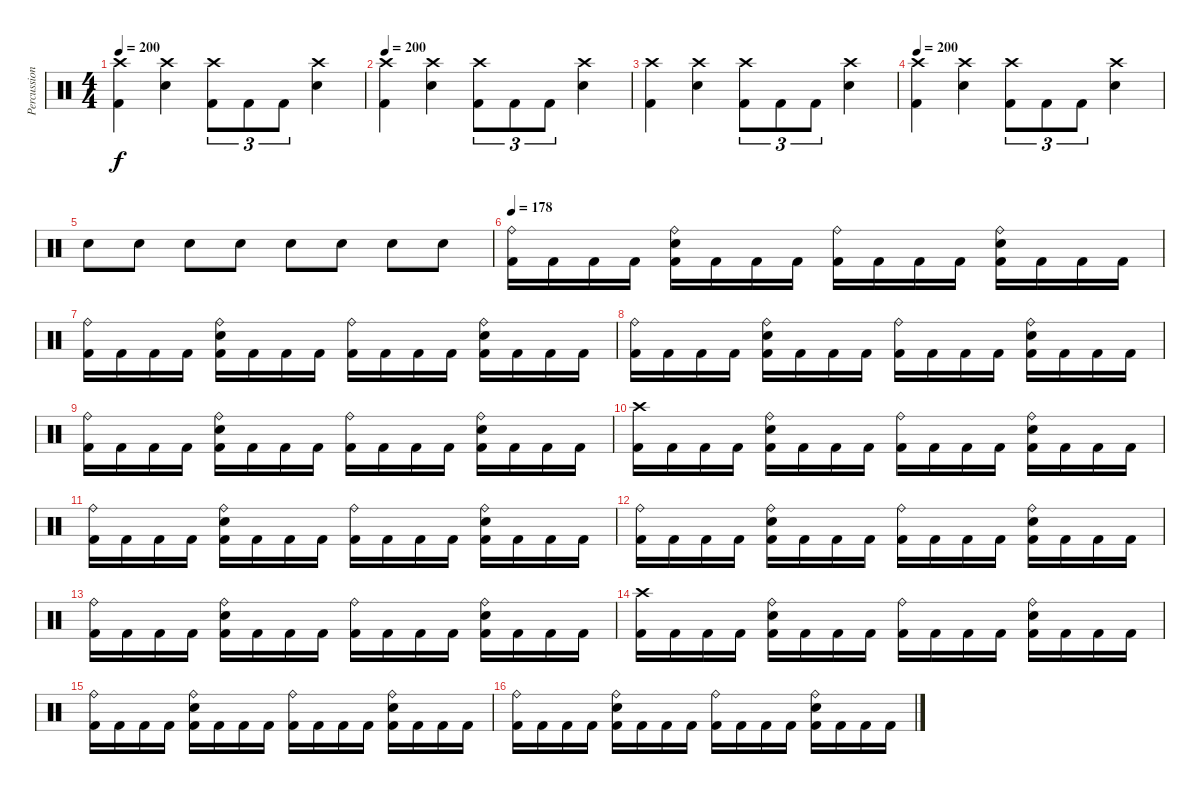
\track ("Percussion" "Percussion") {instrument percussion}
\staff {score}
\articulation defaults
\ts (4 4)
\tempo 200
\clef neutral
\ks c
("Crash high (hit)" "Kick (hit) 2").4{dy f} ("Crash high (hit)" "Electric Snare (hit)").4 ("Crash high (hit)" "Kick (hit) 2").8{tu (3 2)} "Kick (hit) 2".8{tu (3 2)} "Kick (hit) 2".8{tu (3 2)} ("Crash high (hit)" "Electric Snare (hit)").4 |
\tempo 200
("Crash high (hit)" "Kick (hit) 2").4 ("Crash high (hit)" "Electric Snare (hit)").4 ("Crash high (hit)" "Kick (hit) 2").8{tu (3 2)} "Kick (hit) 2".8{tu (3 2)} "Kick (hit) 2".8{tu (3 2)} ("Crash high (hit)" "Electric Snare (hit)").4 |
("Crash high (hit)" "Kick (hit) 2").4 ("Crash high (hit)" "Electric Snare (hit)").4 ("Crash high (hit)" "Kick (hit) 2").8{tu (3 2)} "Kick (hit) 2".8{tu (3 2)} "Kick (hit) 2".8{tu (3 2)} ("Crash high (hit)" "Electric Snare (hit)").4 |
\tempo 200
("Crash high (hit)" "Kick (hit) 2").4 ("Crash high (hit)" "Electric Snare (hit)").4 ("Crash high (hit)" "Kick (hit) 2").8{tu (3 2)} "Kick (hit) 2".8{tu (3 2)} "Kick (hit) 2".8{tu (3 2)} ("Crash high (hit)" "Electric Snare (hit)").4 |
"Electric Snare (hit)".8 "Electric Snare (hit)".8 "Electric Snare (hit)".8 "Electric Snare (hit)".8 "Electric Snare (hit)".8 "Electric Snare (hit)".8 "Electric Snare (hit)".8 "Electric Snare (hit)".8 |
\tempo 178
("Ride (bell)" "Kick (hit) 2").16 "Kick (hit) 2".16 "Kick (hit) 2".16 "Kick (hit) 2".16 ("Ride (bell)" "Electric Snare (hit)" "Kick (hit) 2").16 "Kick (hit) 2".16 "Kick (hit) 2".16 "Kick (hit) 2".16 ("Ride (bell)" "Kick (hit) 2").16 "Kick (hit) 2".16 "Kick (hit) 2".16 "Kick (hit) 2".16 ("Ride (bell)" "Electric Snare (hit)" "Kick (hit) 2").16 "Kick (hit) 2".16 "Kick (hit) 2".16 "Kick (hit) 2".16 |
("Ride (bell)" "Kick (hit) 2").16 "Kick (hit) 2".16 "Kick (hit) 2".16 "Kick (hit) 2".16 ("Ride (bell)" "Electric Snare (hit)" "Kick (hit) 2").16 "Kick (hit) 2".16 "Kick (hit) 2".16 "Kick (hit) 2".16 ("Ride (bell)" "Kick (hit) 2").16 "Kick (hit) 2".16 "Kick (hit) 2".16 "Kick (hit) 2".16 ("Ride (bell)" "Electric Snare (hit)" "Kick (hit) 2").16 "Kick (hit) 2".16 "Kick (hit) 2".16 "Kick (hit) 2".16 |
("Ride (bell)" "Kick (hit) 2").16 "Kick (hit) 2".16 "Kick (hit) 2".16 "Kick (hit) 2".16 ("Ride (bell)" "Electric Snare (hit)" "Kick (hit) 2").16 "Kick (hit) 2".16 "Kick (hit) 2".16 "Kick (hit) 2".16 ("Ride (bell)" "Kick (hit) 2").16 "Kick (hit) 2".16 "Kick (hit) 2".16 "Kick (hit) 2".16 ("Ride (bell)" "Electric Snare (hit)" "Kick (hit) 2").16 "Kick (hit) 2".16 "Kick (hit) 2".16 "Kick (hit) 2".16 |
("Ride (bell)" "Kick (hit) 2").16 "Kick (hit) 2".16 "Kick (hit) 2".16 "Kick (hit) 2".16 ("Ride (bell)" "Electric Snare (hit)" "Kick (hit) 2").16 "Kick (hit) 2".16 "Kick (hit) 2".16 "Kick (hit) 2".16 ("Ride (bell)" "Kick (hit) 2").16 "Kick (hit) 2".16 "Kick (hit) 2".16 "Kick (hit) 2".16 ("Ride (bell)" "Electric Snare (hit)" "Kick (hit) 2").16 "Kick (hit) 2".16 "Kick (hit) 2".16 "Kick (hit) 2".16 |
("Crash high (hit)" "Kick (hit) 2").16 "Kick (hit) 2".16 "Kick (hit) 2".16 "Kick (hit) 2".16 ("Ride (bell)" "Electric Snare (hit)" "Kick (hit) 2").16 "Kick (hit) 2".16 "Kick (hit) 2".16 "Kick (hit) 2".16 ("Ride (bell)" "Kick (hit) 2").16 "Kick (hit) 2".16 "Kick (hit) 2".16 "Kick (hit) 2".16 ("Ride (bell)" "Electric Snare (hit)" "Kick (hit) 2").16 "Kick (hit) 2".16 "Kick (hit) 2".16 "Kick (hit) 2".16 |
("Ride (bell)" "Kick (hit) 2").16 "Kick (hit) 2".16 "Kick (hit) 2".16 "Kick (hit) 2".16 ("Ride (bell)" "Electric Snare (hit)" "Kick (hit) 2").16 "Kick (hit) 2".16 "Kick (hit) 2".16 "Kick (hit) 2".16 ("Ride (bell)" "Kick (hit) 2").16 "Kick (hit) 2".16 "Kick (hit) 2".16 "Kick (hit) 2".16 ("Ride (bell)" "Electric Snare (hit)" "Kick (hit) 2").16 "Kick (hit) 2".16 "Kick (hit) 2".16 "Kick (hit) 2".16 |
("Ride (bell)" "Kick (hit) 2").16 "Kick (hit) 2".16 "Kick (hit) 2".16 "Kick (hit) 2".16 ("Ride (bell)" "Electric Snare (hit)" "Kick (hit) 2").16 "Kick (hit) 2".16 "Kick (hit) 2".16 "Kick (hit) 2".16 ("Ride (bell)" "Kick (hit) 2").16 "Kick (hit) 2".16 "Kick (hit) 2".16 "Kick (hit) 2".16 ("Ride (bell)" "Electric Snare (hit)" "Kick (hit) 2").16 "Kick (hit) 2".16 "Kick (hit) 2".16 "Kick (hit) 2".16 |
("Ride (bell)" "Kick (hit) 2").16 "Kick (hit) 2".16 "Kick (hit) 2".16 "Kick (hit) 2".16 ("Ride (bell)" "Electric Snare (hit)" "Kick (hit) 2").16 "Kick (hit) 2".16 "Kick (hit) 2".16 "Kick (hit) 2".16 ("Ride (bell)" "Kick (hit) 2").16 "Kick (hit) 2".16 "Kick (hit) 2".16 "Kick (hit) 2".16 ("Ride (bell)" "Electric Snare (hit)" "Kick (hit) 2").16 "Kick (hit) 2".16 "Kick (hit) 2".16 "Kick (hit) 2".16 |
("Crash high (hit)" "Kick (hit) 2").16 "Kick (hit) 2".16 "Kick (hit) 2".16 "Kick (hit) 2".16 ("Ride (bell)" "Electric Snare (hit)" "Kick (hit) 2").16 "Kick (hit) 2".16 "Kick (hit) 2".16 "Kick (hit) 2".16 ("Ride (bell)" "Kick (hit) 2").16 "Kick (hit) 2".16 "Kick (hit) 2".16 "Kick (hit) 2".16 ("Ride (bell)" "Electric Snare (hit)" "Kick (hit) 2").16 "Kick (hit) 2".16 "Kick (hit) 2".16 "Kick (hit) 2".16 |
("Ride (bell)" "Kick (hit) 2").16 "Kick (hit) 2".16 "Kick (hit) 2".16 "Kick (hit) 2".16 ("Ride (bell)" "Electric Snare (hit)" "Kick (hit) 2").16 "Kick (hit) 2".16 "Kick (hit) 2".16 "Kick (hit) 2".16 ("Ride (bell)" "Kick (hit) 2").16 "Kick (hit) 2".16 "Kick (hit) 2".16 "Kick (hit) 2".16 ("Ride (bell)" "Electric Snare (hit)" "Kick (hit) 2").16 "Kick (hit) 2".16 "Kick (hit) 2".16 "Kick (hit) 2".16 |
("Ride (bell)" "Kick (hit) 2").16 "Kick (hit) 2".16 "Kick (hit) 2".16 "Kick (hit) 2".16 ("Ride (bell)" "Electric Snare (hit)" "Kick (hit) 2").16 "Kick (hit) 2".16 "Kick (hit) 2".16 "Kick (hit) 2".16 ("Ride (bell)" "Kick (hit) 2").16 "Kick (hit) 2".16 "Kick (hit) 2".16 "Kick (hit) 2".16 ("Ride (bell)" "Electric Snare (hit)" "Kick (hit) 2").16 "Kick (hit) 2".16 "Kick (hit) 2".16 "Kick (hit) 2".16
